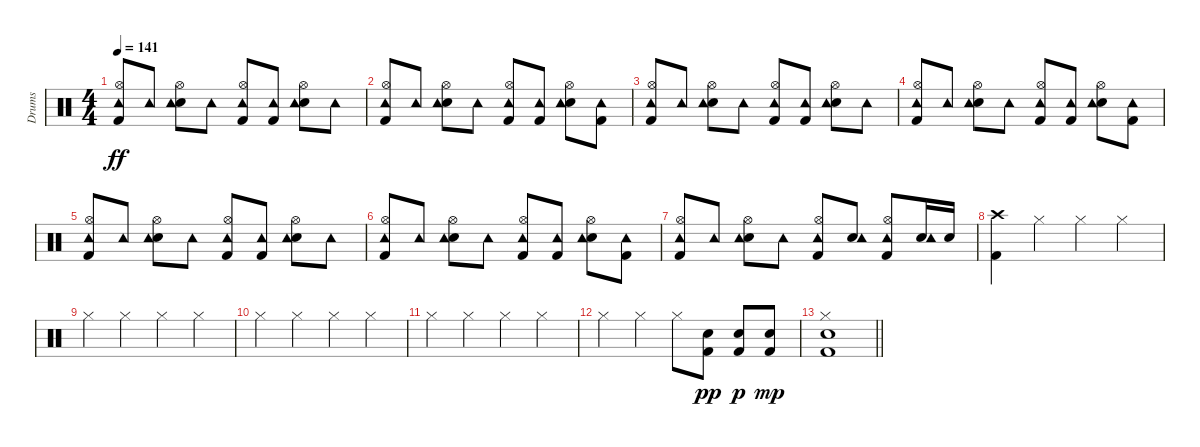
\track ("Drums" "Drums") {instrument percussion}
\staff {score}
\articulation defaults
\ts (4 4)
\tempo 141
\clef neutral
\ks c
("Kick (hit) 2" "Hi-Hat (open)" "Tambourine (hit)").8{dy ff} "Tambourine (hit)".8 ("Snare (hit) 2" "Hi-Hat (open)" "Tambourine (hit)").8 "Tambourine (hit)".8 ("Kick (hit) 2" "Hi-Hat (open)" "Tambourine (hit)").8 ("Kick (hit) 2" "Tambourine (hit)").8 ("Snare (hit) 2" "Hi-Hat (open)" "Tambourine (hit)").8 "Tambourine (hit)".8 |
("Kick (hit) 2" "Hi-Hat (open)" "Tambourine (hit)").8 "Tambourine (hit)".8 ("Snare (hit) 2" "Hi-Hat (open)" "Tambourine (hit)").8 "Tambourine (hit)".8 ("Kick (hit) 2" "Hi-Hat (open)" "Tambourine (hit)").8 ("Kick (hit) 2" "Tambourine (hit)").8 ("Snare (hit) 2" "Hi-Hat (open)" "Tambourine (hit)").8 ("Kick (hit) 2" "Tambourine (hit)").8 |
("Kick (hit) 2" "Hi-Hat (open)" "Tambourine (hit)").8 "Tambourine (hit)".8 ("Snare (hit) 2" "Hi-Hat (open)" "Tambourine (hit)").8 "Tambourine (hit)".8 ("Kick (hit) 2" "Hi-Hat (open)" "Tambourine (hit)").8 ("Kick (hit) 2" "Tambourine (hit)").8 ("Snare (hit) 2" "Hi-Hat (open)" "Tambourine (hit)").8 "Tambourine (hit)".8 |
("Kick (hit) 2" "Hi-Hat (open)" "Tambourine (hit)").8 "Tambourine (hit)".8 ("Snare (hit) 2" "Hi-Hat (open)" "Tambourine (hit)").8 "Tambourine (hit)".8 ("Kick (hit) 2" "Hi-Hat (open)" "Tambourine (hit)").8 ("Kick (hit) 2" "Tambourine (hit)").8 ("Snare (hit) 2" "Hi-Hat (open)" "Tambourine (hit)").8 ("Kick (hit) 2" "Tambourine (hit)").8 |
("Kick (hit) 2" "Hi-Hat (open)" "Tambourine (hit)").8 "Tambourine (hit)".8 ("Snare (hit) 2" "Hi-Hat (open)" "Tambourine (hit)").8 "Tambourine (hit)".8 ("Kick (hit) 2" "Hi-Hat (open)" "Tambourine (hit)").8 ("Kick (hit) 2" "Tambourine (hit)").8 ("Snare (hit) 2" "Hi-Hat (open)" "Tambourine (hit)").8 "Tambourine (hit)".8 |
("Kick (hit) 2" "Hi-Hat (open)" "Tambourine (hit)").8 "Tambourine (hit)".8 ("Snare (hit) 2" "Hi-Hat (open)" "Tambourine (hit)").8 "Tambourine (hit)".8 ("Kick (hit) 2" "Hi-Hat (open)" "Tambourine (hit)").8 ("Kick (hit) 2" "Tambourine (hit)").8 ("Snare (hit) 2" "Hi-Hat (open)" "Tambourine (hit)").8 ("Kick (hit) 2" "Tambourine (hit)").8 |
("Kick (hit) 2" "Hi-Hat (open)" "Tambourine (hit)").8 "Tambourine (hit)".8 ("Snare (hit) 2" "Hi-Hat (open)" "Tambourine (hit)").8 "Tambourine (hit)".8 ("Kick (hit) 2" "Hi-Hat (open)" "Tambourine (hit)").8 ("Snare (hit) 2" "Tambourine (hit)").8 ("Kick (hit) 2" "Hi-Hat (open)" "Tambourine (hit)").8 ("Snare (hit) 2" "Tambourine (hit)").16 "Snare (hit) 2".16 |
("Kick (hit) 2" "Crash high (hit)").4 "Hi-Hat (closed)".4 "Hi-Hat (closed)".4 "Hi-Hat (closed)".4 |
"Hi-Hat (closed)".4 "Hi-Hat (closed)".4 "Hi-Hat (closed)".4 "Hi-Hat (closed)".4 |
"Hi-Hat (closed)".4 "Hi-Hat (closed)".4 "Hi-Hat (closed)".4 "Hi-Hat (closed)".4 |
"Hi-Hat (closed)".4 "Hi-Hat (closed)".4 "Hi-Hat (closed)".4 "Hi-Hat (closed)".4 |
"Hi-Hat (closed)".4 "Hi-Hat (closed)".4 "Hi-Hat (closed)".8 ("Kick (hit) 2" "Snare (hit) 2").8{dy pp} ("Kick (hit) 2" "Snare (hit) 2").8{dy p} ("Kick (hit) 2" "Snare (hit) 2").8{dy mp} |
\barLineRight lightlight
("Kick (hit) 2" "Snare (hit) 2" "Hi-Hat (closed)").1
